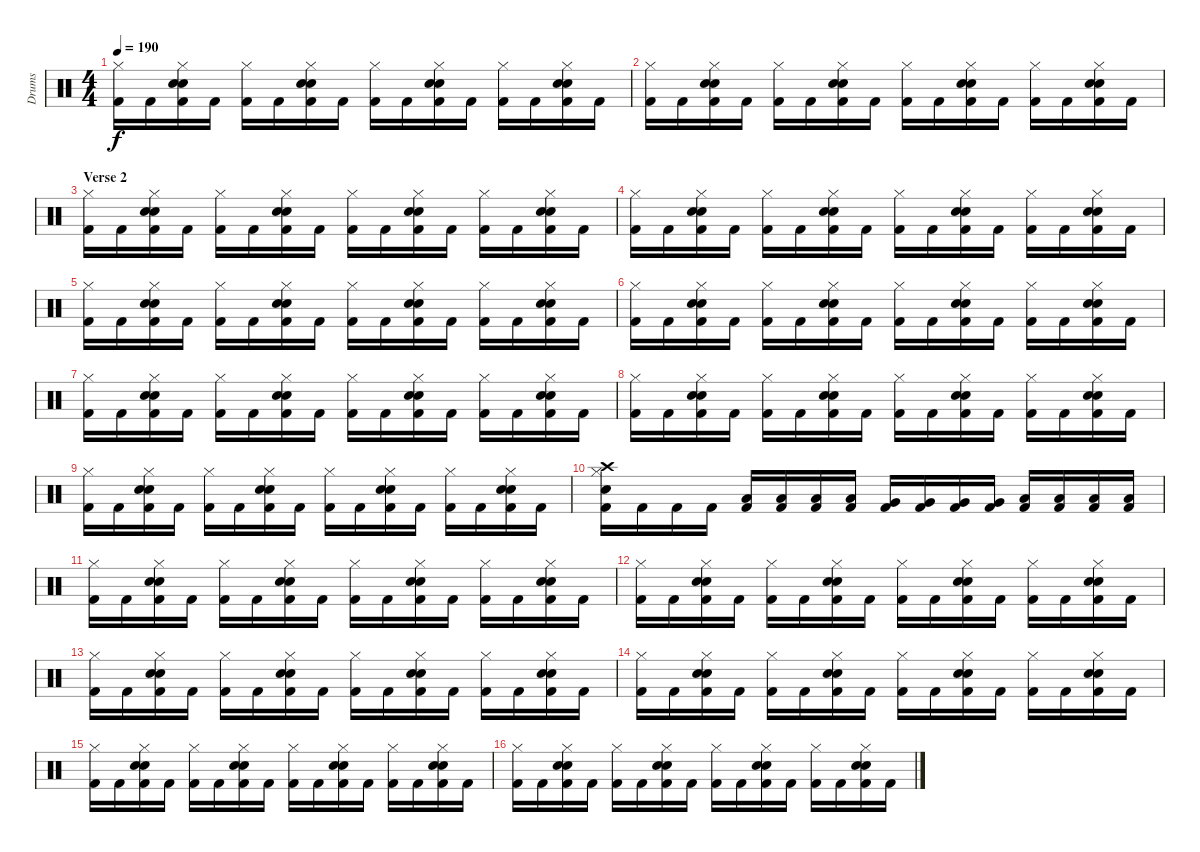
\track ("Drums" "Drums") {instrument percussion}
\staff {score}
\articulation defaults
\ts (4 4)
\tempo 190
\clef neutral
\ks c
("Hi-Hat (closed)" "Kick (hit) 2").16{dy f} "Kick (hit) 2".16 ("Snare (hit) 2" "Hi-Hat (closed)" "Snare (hit) 2" "Kick (hit) 2").16 "Kick (hit) 2".16 ("Hi-Hat (closed)" "Kick (hit) 2").16 "Kick (hit) 2".16 ("Snare (hit) 2" "Hi-Hat (closed)" "Snare (hit) 2" "Kick (hit) 2").16 "Kick (hit) 2".16 ("Hi-Hat (closed)" "Kick (hit) 2").16 "Kick (hit) 2".16 ("Snare (hit) 2" "Hi-Hat (closed)" "Snare (hit) 2" "Kick (hit) 2").16 "Kick (hit) 2".16 ("Hi-Hat (closed)" "Kick (hit) 2").16 "Kick (hit) 2".16 ("Snare (hit) 2" "Hi-Hat (closed)" "Snare (hit) 2" "Kick (hit) 2").16 "Kick (hit) 2".16 |
("Hi-Hat (closed)" "Kick (hit) 2").16 "Kick (hit) 2".16 ("Snare (hit) 2" "Hi-Hat (closed)" "Snare (hit) 2" "Kick (hit) 2").16 "Kick (hit) 2".16 ("Hi-Hat (closed)" "Kick (hit) 2").16 "Kick (hit) 2".16 ("Snare (hit) 2" "Hi-Hat (closed)" "Snare (hit) 2" "Kick (hit) 2").16 "Kick (hit) 2".16 ("Hi-Hat (closed)" "Kick (hit) 2").16 "Kick (hit) 2".16 ("Snare (hit) 2" "Hi-Hat (closed)" "Snare (hit) 2" "Kick (hit) 2").16 "Kick (hit) 2".16 ("Hi-Hat (closed)" "Kick (hit) 2").16 "Kick (hit) 2".16 ("Snare (hit) 2" "Hi-Hat (closed)" "Snare (hit) 2" "Kick (hit) 2").16 "Kick (hit) 2".16 |
\section ("" "Verse 2")
("Hi-Hat (closed)" "Kick (hit) 2").16 "Kick (hit) 2".16 ("Snare (hit) 2" "Hi-Hat (closed)" "Snare (hit) 2" "Kick (hit) 2").16 "Kick (hit) 2".16 ("Hi-Hat (closed)" "Kick (hit) 2").16 "Kick (hit) 2".16 ("Snare (hit) 2" "Hi-Hat (closed)" "Snare (hit) 2" "Kick (hit) 2").16 "Kick (hit) 2".16 ("Hi-Hat (closed)" "Kick (hit) 2").16 "Kick (hit) 2".16 ("Snare (hit) 2" "Hi-Hat (closed)" "Snare (hit) 2" "Kick (hit) 2").16 "Kick (hit) 2".16 ("Hi-Hat (closed)" "Kick (hit) 2").16 "Kick (hit) 2".16 ("Snare (hit) 2" "Hi-Hat (closed)" "Snare (hit) 2" "Kick (hit) 2").16 "Kick (hit) 2".16 |
("Hi-Hat (closed)" "Kick (hit) 2").16 "Kick (hit) 2".16 ("Snare (hit) 2" "Hi-Hat (closed)" "Snare (hit) 2" "Kick (hit) 2").16 "Kick (hit) 2".16 ("Hi-Hat (closed)" "Kick (hit) 2").16 "Kick (hit) 2".16 ("Snare (hit) 2" "Hi-Hat (closed)" "Snare (hit) 2" "Kick (hit) 2").16 "Kick (hit) 2".16 ("Hi-Hat (closed)" "Kick (hit) 2").16 "Kick (hit) 2".16 ("Snare (hit) 2" "Hi-Hat (closed)" "Snare (hit) 2" "Kick (hit) 2").16 "Kick (hit) 2".16 ("Hi-Hat (closed)" "Kick (hit) 2").16 "Kick (hit) 2".16 ("Snare (hit) 2" "Hi-Hat (closed)" "Snare (hit) 2" "Kick (hit) 2").16 "Kick (hit) 2".16 |
("Hi-Hat (closed)" "Kick (hit) 2").16 "Kick (hit) 2".16 ("Snare (hit) 2" "Hi-Hat (closed)" "Snare (hit) 2" "Kick (hit) 2").16 "Kick (hit) 2".16 ("Hi-Hat (closed)" "Kick (hit) 2").16 "Kick (hit) 2".16 ("Snare (hit) 2" "Hi-Hat (closed)" "Snare (hit) 2" "Kick (hit) 2").16 "Kick (hit) 2".16 ("Hi-Hat (closed)" "Kick (hit) 2").16 "Kick (hit) 2".16 ("Snare (hit) 2" "Hi-Hat (closed)" "Snare (hit) 2" "Kick (hit) 2").16 "Kick (hit) 2".16 ("Hi-Hat (closed)" "Kick (hit) 2").16 "Kick (hit) 2".16 ("Snare (hit) 2" "Hi-Hat (closed)" "Snare (hit) 2" "Kick (hit) 2").16 "Kick (hit) 2".16 |
("Hi-Hat (closed)" "Kick (hit) 2").16 "Kick (hit) 2".16 ("Snare (hit) 2" "Hi-Hat (closed)" "Snare (hit) 2" "Kick (hit) 2").16 "Kick (hit) 2".16 ("Hi-Hat (closed)" "Kick (hit) 2").16 "Kick (hit) 2".16 ("Snare (hit) 2" "Hi-Hat (closed)" "Snare (hit) 2" "Kick (hit) 2").16 "Kick (hit) 2".16 ("Hi-Hat (closed)" "Kick (hit) 2").16 "Kick (hit) 2".16 ("Snare (hit) 2" "Hi-Hat (closed)" "Snare (hit) 2" "Kick (hit) 2").16 "Kick (hit) 2".16 ("Hi-Hat (closed)" "Kick (hit) 2").16 "Kick (hit) 2".16 ("Snare (hit) 2" "Hi-Hat (closed)" "Snare (hit) 2" "Kick (hit) 2").16 "Kick (hit) 2".16 |
("Hi-Hat (closed)" "Kick (hit) 2").16 "Kick (hit) 2".16 ("Snare (hit) 2" "Hi-Hat (closed)" "Snare (hit) 2" "Kick (hit) 2").16 "Kick (hit) 2".16 ("Hi-Hat (closed)" "Kick (hit) 2").16 "Kick (hit) 2".16 ("Snare (hit) 2" "Hi-Hat (closed)" "Snare (hit) 2" "Kick (hit) 2").16 "Kick (hit) 2".16 ("Hi-Hat (closed)" "Kick (hit) 2").16 "Kick (hit) 2".16 ("Snare (hit) 2" "Hi-Hat (closed)" "Snare (hit) 2" "Kick (hit) 2").16 "Kick (hit) 2".16 ("Hi-Hat (closed)" "Kick (hit) 2").16 "Kick (hit) 2".16 ("Snare (hit) 2" "Hi-Hat (closed)" "Snare (hit) 2" "Kick (hit) 2").16 "Kick (hit) 2".16 |
("Hi-Hat (closed)" "Kick (hit) 2").16 "Kick (hit) 2".16 ("Snare (hit) 2" "Hi-Hat (closed)" "Snare (hit) 2" "Kick (hit) 2").16 "Kick (hit) 2".16 ("Hi-Hat (closed)" "Kick (hit) 2").16 "Kick (hit) 2".16 ("Snare (hit) 2" "Hi-Hat (closed)" "Snare (hit) 2" "Kick (hit) 2").16 "Kick (hit) 2".16 ("Hi-Hat (closed)" "Kick (hit) 2").16 "Kick (hit) 2".16 ("Snare (hit) 2" "Hi-Hat (closed)" "Snare (hit) 2" "Kick (hit) 2").16 "Kick (hit) 2".16 ("Hi-Hat (closed)" "Kick (hit) 2").16 "Kick (hit) 2".16 ("Snare (hit) 2" "Hi-Hat (closed)" "Snare (hit) 2" "Kick (hit) 2").16 "Kick (hit) 2".16 |
("Hi-Hat (closed)" "Kick (hit) 2").16 "Kick (hit) 2".16 ("Snare (hit) 2" "Hi-Hat (closed)" "Snare (hit) 2" "Kick (hit) 2").16 "Kick (hit) 2".16 ("Hi-Hat (closed)" "Kick (hit) 2").16 "Kick (hit) 2".16 ("Snare (hit) 2" "Hi-Hat (closed)" "Snare (hit) 2" "Kick (hit) 2").16 "Kick (hit) 2".16 ("Hi-Hat (closed)" "Kick (hit) 2").16 "Kick (hit) 2".16 ("Snare (hit) 2" "Hi-Hat (closed)" "Snare (hit) 2" "Kick (hit) 2").16 "Kick (hit) 2".16 ("Hi-Hat (closed)" "Kick (hit) 2").16 "Kick (hit) 2".16 ("Snare (hit) 2" "Hi-Hat (closed)" "Snare (hit) 2" "Kick (hit) 2").16 "Kick (hit) 2".16 |
("Crash high (hit)" "Hi-Hat (closed)" "Snare (hit) 2" "Kick (hit) 2").16 "Kick (hit) 2".16 "Kick (hit) 2".16 "Kick (hit) 2".16 ("Low Tom (hit)" "Kick (hit) 2").16 ("Low Tom (hit)" "Kick (hit) 2").16 ("Low Tom (hit)" "Kick (hit) 2").16 ("Low Tom (hit)" "Kick (hit) 2").16 ("Very Low Tom (hit)" "Kick (hit) 2").16 ("Very Low Tom (hit)" "Kick (hit) 2").16 ("Very Low Tom (hit)" "Kick (hit) 2").16 ("Very Low Tom (hit)" "Kick (hit) 2").16 ("Low Floor Tom (hit)" "Kick (hit) 2").16 ("Low Floor Tom (hit)" "Kick (hit) 2").16 ("Low Floor Tom (hit)" "Kick (hit) 2").16 ("Low Floor Tom (hit)" "Kick (hit) 2").16 |
("Hi-Hat (closed)" "Kick (hit) 2").16 "Kick (hit) 2".16 ("Snare (hit) 2" "Hi-Hat (closed)" "Snare (hit) 2" "Kick (hit) 2").16 "Kick (hit) 2".16 ("Hi-Hat (closed)" "Kick (hit) 2").16 "Kick (hit) 2".16 ("Snare (hit) 2" "Hi-Hat (closed)" "Snare (hit) 2" "Kick (hit) 2").16 "Kick (hit) 2".16 ("Hi-Hat (closed)" "Kick (hit) 2").16 "Kick (hit) 2".16 ("Snare (hit) 2" "Hi-Hat (closed)" "Snare (hit) 2" "Kick (hit) 2").16 "Kick (hit) 2".16 ("Hi-Hat (closed)" "Kick (hit) 2").16 "Kick (hit) 2".16 ("Snare (hit) 2" "Hi-Hat (closed)" "Snare (hit) 2" "Kick (hit) 2").16 "Kick (hit) 2".16 |
("Hi-Hat (closed)" "Kick (hit) 2").16 "Kick (hit) 2".16 ("Snare (hit) 2" "Hi-Hat (closed)" "Snare (hit) 2" "Kick (hit) 2").16 "Kick (hit) 2".16 ("Hi-Hat (closed)" "Kick (hit) 2").16 "Kick (hit) 2".16 ("Snare (hit) 2" "Hi-Hat (closed)" "Snare (hit) 2" "Kick (hit) 2").16 "Kick (hit) 2".16 ("Hi-Hat (closed)" "Kick (hit) 2").16 "Kick (hit) 2".16 ("Snare (hit) 2" "Hi-Hat (closed)" "Snare (hit) 2" "Kick (hit) 2").16 "Kick (hit) 2".16 ("Hi-Hat (closed)" "Kick (hit) 2").16 "Kick (hit) 2".16 ("Snare (hit) 2" "Hi-Hat (closed)" "Snare (hit) 2" "Kick (hit) 2").16 "Kick (hit) 2".16 |
("Hi-Hat (closed)" "Kick (hit) 2").16 "Kick (hit) 2".16 ("Snare (hit) 2" "Hi-Hat (closed)" "Snare (hit) 2" "Kick (hit) 2").16 "Kick (hit) 2".16 ("Hi-Hat (closed)" "Kick (hit) 2").16 "Kick (hit) 2".16 ("Snare (hit) 2" "Hi-Hat (closed)" "Snare (hit) 2" "Kick (hit) 2").16 "Kick (hit) 2".16 ("Hi-Hat (closed)" "Kick (hit) 2").16 "Kick (hit) 2".16 ("Snare (hit) 2" "Hi-Hat (closed)" "Snare (hit) 2" "Kick (hit) 2").16 "Kick (hit) 2".16 ("Hi-Hat (closed)" "Kick (hit) 2").16 "Kick (hit) 2".16 ("Snare (hit) 2" "Hi-Hat (closed)" "Snare (hit) 2" "Kick (hit) 2").16 "Kick (hit) 2".16 |
("Hi-Hat (closed)" "Kick (hit) 2").16 "Kick (hit) 2".16 ("Snare (hit) 2" "Hi-Hat (closed)" "Snare (hit) 2" "Kick (hit) 2").16 "Kick (hit) 2".16 ("Hi-Hat (closed)" "Kick (hit) 2").16 "Kick (hit) 2".16 ("Snare (hit) 2" "Hi-Hat (closed)" "Snare (hit) 2" "Kick (hit) 2").16 "Kick (hit) 2".16 ("Hi-Hat (closed)" "Kick (hit) 2").16 "Kick (hit) 2".16 ("Snare (hit) 2" "Hi-Hat (closed)" "Snare (hit) 2" "Kick (hit) 2").16 "Kick (hit) 2".16 ("Hi-Hat (closed)" "Kick (hit) 2").16 "Kick (hit) 2".16 ("Snare (hit) 2" "Hi-Hat (closed)" "Snare (hit) 2" "Kick (hit) 2").16 "Kick (hit) 2".16 |
("Hi-Hat (closed)" "Kick (hit) 2").16 "Kick (hit) 2".16 ("Snare (hit) 2" "Hi-Hat (closed)" "Snare (hit) 2" "Kick (hit) 2").16 "Kick (hit) 2".16 ("Hi-Hat (closed)" "Kick (hit) 2").16 "Kick (hit) 2".16 ("Snare (hit) 2" "Hi-Hat (closed)" "Snare (hit) 2" "Kick (hit) 2").16 "Kick (hit) 2".16 ("Hi-Hat (closed)" "Kick (hit) 2").16 "Kick (hit) 2".16 ("Snare (hit) 2" "Hi-Hat (closed)" "Snare (hit) 2" "Kick (hit) 2").16 "Kick (hit) 2".16 ("Hi-Hat (closed)" "Kick (hit) 2").16 "Kick (hit) 2".16 ("Snare (hit) 2" "Hi-Hat (closed)" "Snare (hit) 2" "Kick (hit) 2").16 "Kick (hit) 2".16 |
("Hi-Hat (closed)" "Kick (hit) 2").16 "Kick (hit) 2".16 ("Snare (hit) 2" "Hi-Hat (closed)" "Snare (hit) 2" "Kick (hit) 2").16 "Kick (hit) 2".16 ("Hi-Hat (closed)" "Kick (hit) 2").16 "Kick (hit) 2".16 ("Snare (hit) 2" "Hi-Hat (closed)" "Snare (hit) 2" "Kick (hit) 2").16 "Kick (hit) 2".16 ("Hi-Hat (closed)" "Kick (hit) 2").16 "Kick (hit) 2".16 ("Snare (hit) 2" "Hi-Hat (closed)" "Snare (hit) 2" "Kick (hit) 2").16 "Kick (hit) 2".16 ("Hi-Hat (closed)" "Kick (hit) 2").16 "Kick (hit) 2".16 ("Snare (hit) 2" "Hi-Hat (closed)" "Snare (hit) 2" "Kick (hit) 2").16 "Kick (hit) 2".16
